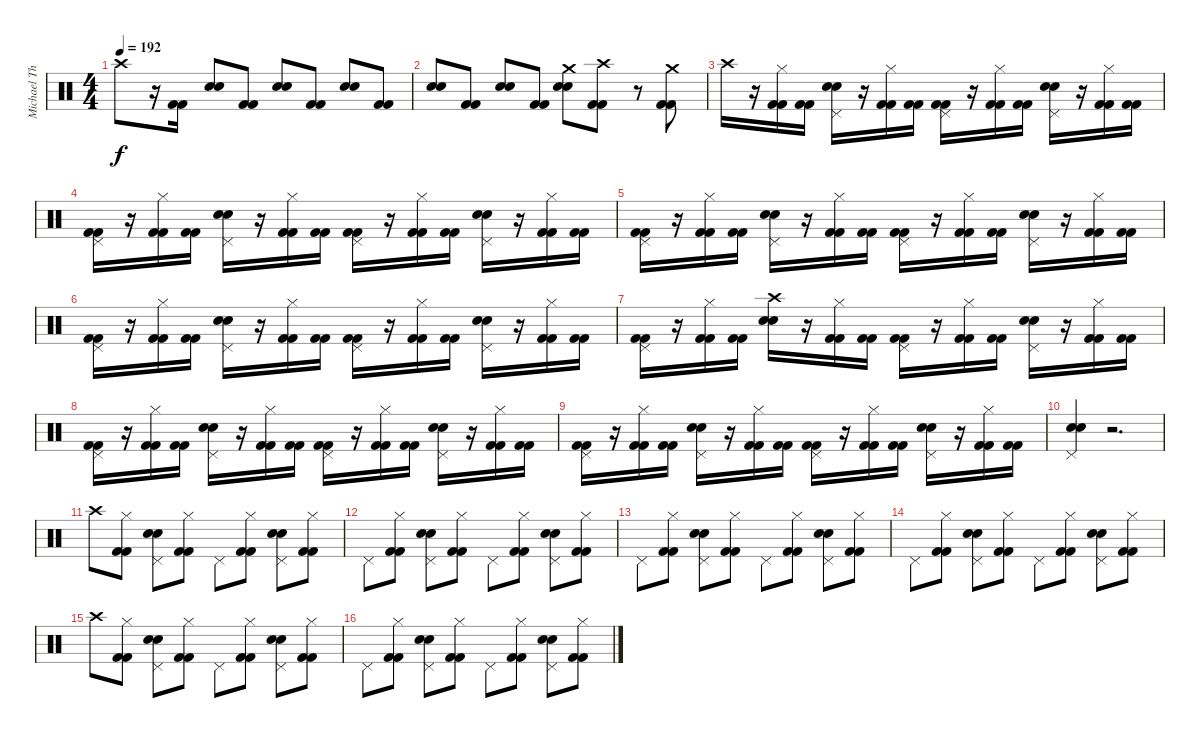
\track ("Michael Thomas" "Michael Th") {instrument percussion}
\staff {score}
\articulation defaults
\ts (4 4)
\tempo 192
\clef neutral
\ks c "Crash high (hit)".8{dy f}
r.16 ("Kick (hit) 2" "Kick (hit) 2").16 ("Snare (hit) 2" "Electric Snare (hit)").8 ("Kick (hit) 2" "Kick (hit) 2").8 ("Snare (hit) 2" "Electric Snare (hit)").8 ("Kick (hit) 2" "Kick (hit) 2").8 ("Snare (hit) 2" "Electric Snare (hit)").8 ("Kick (hit) 2" "Kick (hit) 2").8 |
("Snare (hit) 2" "Electric Snare (hit)").8 ("Kick (hit) 2" "Kick (hit) 2").8 ("Snare (hit) 2" "Electric Snare (hit)").8 ("Kick (hit) 2" "Kick (hit) 2").8 ("Crash medium (hit)" "Snare (hit) 2" "Electric Snare (hit)").8 ("Crash high (hit)" "Kick (hit) 2" "Kick (hit) 2").8 r.8 ("Crash medium (hit)" "Kick (hit) 2" "Kick (hit) 2").8 |
"Crash high (hit)".16 r.16 ("Hi-Hat (closed)" "Kick (hit) 2" "Kick (hit) 2").16 ("Kick (hit) 2" "Kick (hit) 2").16 ("Pedal Hi-Hat (hit)" "Snare (hit) 2" "Electric Snare (hit)").16 r.16 ("Hi-Hat (closed)" "Kick (hit) 2" "Kick (hit) 2").16 ("Kick (hit) 2" "Kick (hit) 2").16 ("Pedal Hi-Hat (hit)" "Kick (hit) 2" "Kick (hit) 2").16 r.16 ("Hi-Hat (closed)" "Kick (hit) 2" "Kick (hit) 2").16 ("Kick (hit) 2" "Kick (hit) 2").16 ("Pedal Hi-Hat (hit)" "Snare (hit) 2" "Electric Snare (hit)").16 r.16 ("Hi-Hat (closed)" "Kick (hit) 2" "Kick (hit) 2").16 ("Kick (hit) 2" "Kick (hit) 2").16 |
("Pedal Hi-Hat (hit)" "Kick (hit) 2" "Kick (hit) 2").16 r.16 ("Hi-Hat (closed)" "Kick (hit) 2" "Kick (hit) 2").16 ("Kick (hit) 2" "Kick (hit) 2").16 ("Pedal Hi-Hat (hit)" "Snare (hit) 2" "Electric Snare (hit)").16 r.16 ("Hi-Hat (closed)" "Kick (hit) 2" "Kick (hit) 2").16 ("Kick (hit) 2" "Kick (hit) 2").16 ("Pedal Hi-Hat (hit)" "Kick (hit) 2" "Kick (hit) 2").16 r.16 ("Hi-Hat (closed)" "Kick (hit) 2" "Kick (hit) 2").16 ("Kick (hit) 2" "Kick (hit) 2").16 ("Pedal Hi-Hat (hit)" "Snare (hit) 2" "Electric Snare (hit)").16 r.16 ("Hi-Hat (closed)" "Kick (hit) 2" "Kick (hit) 2").16 ("Kick (hit) 2" "Kick (hit) 2").16 |
("Pedal Hi-Hat (hit)" "Kick (hit) 2" "Kick (hit) 2").16 r.16 ("Hi-Hat (closed)" "Kick (hit) 2" "Kick (hit) 2").16 ("Kick (hit) 2" "Kick (hit) 2").16 ("Pedal Hi-Hat (hit)" "Snare (hit) 2" "Electric Snare (hit)").16 r.16 ("Hi-Hat (closed)" "Kick (hit) 2" "Kick (hit) 2").16 ("Kick (hit) 2" "Kick (hit) 2").16 ("Pedal Hi-Hat (hit)" "Kick (hit) 2" "Kick (hit) 2").16 r.16 ("Hi-Hat (closed)" "Kick (hit) 2" "Kick (hit) 2").16 ("Kick (hit) 2" "Kick (hit) 2").16 ("Pedal Hi-Hat (hit)" "Snare (hit) 2" "Electric Snare (hit)").16 r.16 ("Hi-Hat (closed)" "Kick (hit) 2" "Kick (hit) 2").16 ("Kick (hit) 2" "Kick (hit) 2").16 |
("Pedal Hi-Hat (hit)" "Kick (hit) 2" "Kick (hit) 2").16 r.16 ("Hi-Hat (closed)" "Kick (hit) 2" "Kick (hit) 2").16 ("Kick (hit) 2" "Kick (hit) 2").16 ("Pedal Hi-Hat (hit)" "Snare (hit) 2" "Electric Snare (hit)").16 r.16 ("Hi-Hat (closed)" "Kick (hit) 2" "Kick (hit) 2").16 ("Kick (hit) 2" "Kick (hit) 2").16 ("Pedal Hi-Hat (hit)" "Kick (hit) 2" "Kick (hit) 2").16 r.16 ("Hi-Hat (closed)" "Kick (hit) 2" "Kick (hit) 2").16 ("Kick (hit) 2" "Kick (hit) 2").16 ("Pedal Hi-Hat (hit)" "Snare (hit) 2" "Electric Snare (hit)").16 r.16 ("Hi-Hat (closed)" "Kick (hit) 2" "Kick (hit) 2").16 ("Kick (hit) 2" "Kick (hit) 2").16 |
("Pedal Hi-Hat (hit)" "Kick (hit) 2" "Kick (hit) 2").16 r.16 ("Hi-Hat (closed)" "Kick (hit) 2" "Kick (hit) 2").16 ("Kick (hit) 2" "Kick (hit) 2").16 ("Crash high (hit)" "Snare (hit) 2" "Electric Snare (hit)").16 r.16 ("Hi-Hat (closed)" "Kick (hit) 2" "Kick (hit) 2").16 ("Kick (hit) 2" "Kick (hit) 2").16 ("Pedal Hi-Hat (hit)" "Kick (hit) 2" "Kick (hit) 2").16 r.16 ("Hi-Hat (closed)" "Kick (hit) 2" "Kick (hit) 2").16 ("Kick (hit) 2" "Kick (hit) 2").16 ("Pedal Hi-Hat (hit)" "Snare (hit) 2" "Electric Snare (hit)").16 r.16 ("Hi-Hat (closed)" "Kick (hit) 2" "Kick (hit) 2").16 ("Kick (hit) 2" "Kick (hit) 2").16 |
("Pedal Hi-Hat (hit)" "Kick (hit) 2" "Kick (hit) 2").16 r.16 ("Hi-Hat (closed)" "Kick (hit) 2" "Kick (hit) 2").16 ("Kick (hit) 2" "Kick (hit) 2").16 ("Pedal Hi-Hat (hit)" "Snare (hit) 2" "Electric Snare (hit)").16 r.16 ("Hi-Hat (closed)" "Kick (hit) 2" "Kick (hit) 2").16 ("Kick (hit) 2" "Kick (hit) 2").16 ("Pedal Hi-Hat (hit)" "Kick (hit) 2" "Kick (hit) 2").16 r.16 ("Hi-Hat (closed)" "Kick (hit) 2" "Kick (hit) 2").16 ("Kick (hit) 2" "Kick (hit) 2").16 ("Pedal Hi-Hat (hit)" "Snare (hit) 2" "Electric Snare (hit)").16 r.16 ("Hi-Hat (closed)" "Kick (hit) 2" "Kick (hit) 2").16 ("Kick (hit) 2" "Kick (hit) 2").16 |
("Pedal Hi-Hat (hit)" "Kick (hit) 2" "Kick (hit) 2").16 r.16 ("Hi-Hat (closed)" "Kick (hit) 2" "Kick (hit) 2").16 ("Kick (hit) 2" "Kick (hit) 2").16 ("Pedal Hi-Hat (hit)" "Snare (hit) 2" "Electric Snare (hit)").16 r.16 ("Hi-Hat (closed)" "Kick (hit) 2" "Kick (hit) 2").16 ("Kick (hit) 2" "Kick (hit) 2").16 ("Pedal Hi-Hat (hit)" "Kick (hit) 2" "Kick (hit) 2").16 r.16 ("Hi-Hat (closed)" "Kick (hit) 2" "Kick (hit) 2").16 ("Kick (hit) 2" "Kick (hit) 2").16 ("Pedal Hi-Hat (hit)" "Snare (hit) 2" "Electric Snare (hit)").16 r.16 ("Hi-Hat (closed)" "Kick (hit) 2" "Kick (hit) 2").16 ("Kick (hit) 2" "Kick (hit) 2").16 |
("Pedal Hi-Hat (hit)" "Snare (hit) 2" "Electric Snare (hit)").4 r.2{d} |
"Crash high (hit)".8 ("Hi-Hat (closed)" "Kick (hit) 2" "Kick (hit) 2").8 ("Pedal Hi-Hat (hit)" "Snare (hit) 2" "Electric Snare (hit)").8 ("Hi-Hat (closed)" "Kick (hit) 2" "Kick (hit) 2").8 "Pedal Hi-Hat (hit)".8 ("Hi-Hat (closed)" "Kick (hit) 2" "Kick (hit) 2").8 ("Pedal Hi-Hat (hit)" "Snare (hit) 2" "Electric Snare (hit)").8 ("Hi-Hat (closed)" "Kick (hit) 2" "Kick (hit) 2").8 |
"Pedal Hi-Hat (hit)".8 ("Hi-Hat (closed)" "Kick (hit) 2" "Kick (hit) 2").8 ("Pedal Hi-Hat (hit)" "Snare (hit) 2" "Electric Snare (hit)").8 ("Hi-Hat (closed)" "Kick (hit) 2" "Kick (hit) 2").8 "Pedal Hi-Hat (hit)".8 ("Hi-Hat (closed)" "Kick (hit) 2" "Kick (hit) 2").8 ("Pedal Hi-Hat (hit)" "Snare (hit) 2" "Electric Snare (hit)").8 ("Hi-Hat (closed)" "Kick (hit) 2" "Kick (hit) 2").8 |
"Pedal Hi-Hat (hit)".8 ("Hi-Hat (closed)" "Kick (hit) 2" "Kick (hit) 2").8 ("Pedal Hi-Hat (hit)" "Snare (hit) 2" "Electric Snare (hit)").8 ("Hi-Hat (closed)" "Kick (hit) 2" "Kick (hit) 2").8 "Pedal Hi-Hat (hit)".8 ("Hi-Hat (closed)" "Kick (hit) 2" "Kick (hit) 2").8 ("Pedal Hi-Hat (hit)" "Snare (hit) 2" "Electric Snare (hit)").8 ("Hi-Hat (closed)" "Kick (hit) 2" "Kick (hit) 2").8 |
"Pedal Hi-Hat (hit)".8 ("Hi-Hat (closed)" "Kick (hit) 2" "Kick (hit) 2").8 ("Pedal Hi-Hat (hit)" "Snare (hit) 2" "Electric Snare (hit)").8 ("Hi-Hat (closed)" "Kick (hit) 2" "Kick (hit) 2").8 "Pedal Hi-Hat (hit)".8 ("Hi-Hat (closed)" "Kick (hit) 2" "Kick (hit) 2").8 ("Pedal Hi-Hat (hit)" "Snare (hit) 2" "Electric Snare (hit)").8 ("Hi-Hat (closed)" "Kick (hit) 2" "Kick (hit) 2").8 |
"Crash high (hit)".8 ("Hi-Hat (closed)" "Kick (hit) 2" "Kick (hit) 2").8 ("Pedal Hi-Hat (hit)" "Snare (hit) 2" "Electric Snare (hit)").8 ("Hi-Hat (closed)" "Kick (hit) 2" "Kick (hit) 2").8 "Pedal Hi-Hat (hit)".8 ("Hi-Hat (closed)" "Kick (hit) 2" "Kick (hit) 2").8 ("Pedal Hi-Hat (hit)" "Snare (hit) 2" "Electric Snare (hit)").8 ("Hi-Hat (closed)" "Kick (hit) 2" "Kick (hit) 2").8 |
"Pedal Hi-Hat (hit)".8 ("Hi-Hat (closed)" "Kick (hit) 2" "Kick (hit) 2").8 ("Pedal Hi-Hat (hit)" "Snare (hit) 2" "Electric Snare (hit)").8 ("Hi-Hat (closed)" "Kick (hit) 2" "Kick (hit) 2").8 "Pedal Hi-Hat (hit)".8 ("Hi-Hat (closed)" "Kick (hit) 2" "Kick (hit) 2").8 ("Pedal Hi-Hat (hit)" "Snare (hit) 2" "Electric Snare (hit)").8 ("Hi-Hat (closed)" "Kick (hit) 2" "Kick (hit) 2").8
